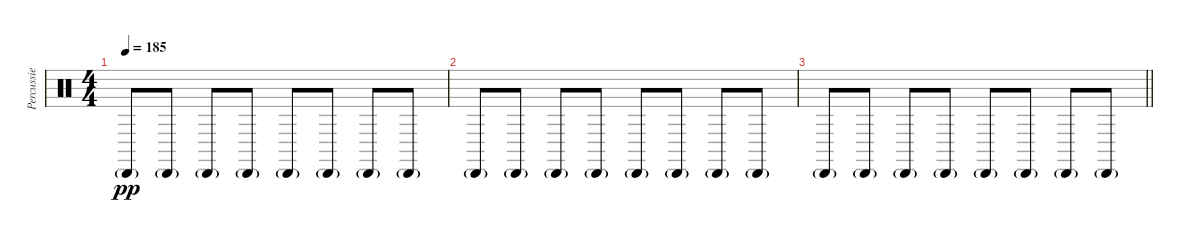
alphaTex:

\track ("Percussie" "Percussie") {instrument percussion}
\staff {score}
\articulation defaults
\ts (4 4)
\tempo 185
\clef neutral
\ks c "Cabasa (hit)"{g}.8{dy pp} "Cabasa (hit)"{g}.8 "Cabasa (hit)"{g}.8 "Cabasa (hit)"{g}.8 "Cabasa (hit)"{g}.8 "Cabasa (hit)"{g}.8 "Cabasa (hit)"{g}.8 "Cabasa (hit)"{g}.8
|
"Cabasa (hit)"{g}.8 "Cabasa (hit)"{g}.8 "Cabasa (hit)"{g}.8 "Cabasa (hit)"{g}.8 "Cabasa (hit)"{g}.8 "Cabasa (hit)"{g}.8 "Cabasa (hit)"{g}.8 "Cabasa (hit)"{g}.8 |
\barLineRight lightlight "Cabasa (hit)"{g}.8 "Cabasa (hit)"{g}.8 "Cabasa (hit)"{g}.8 "Cabasa (hit)"{g}.8 "Cabasa (hit)"{g}.8 "Cabasa (hit)"{g}.8 "Cabasa (hit)"{g}.8 "Cabasa (hit)"{g}.8
